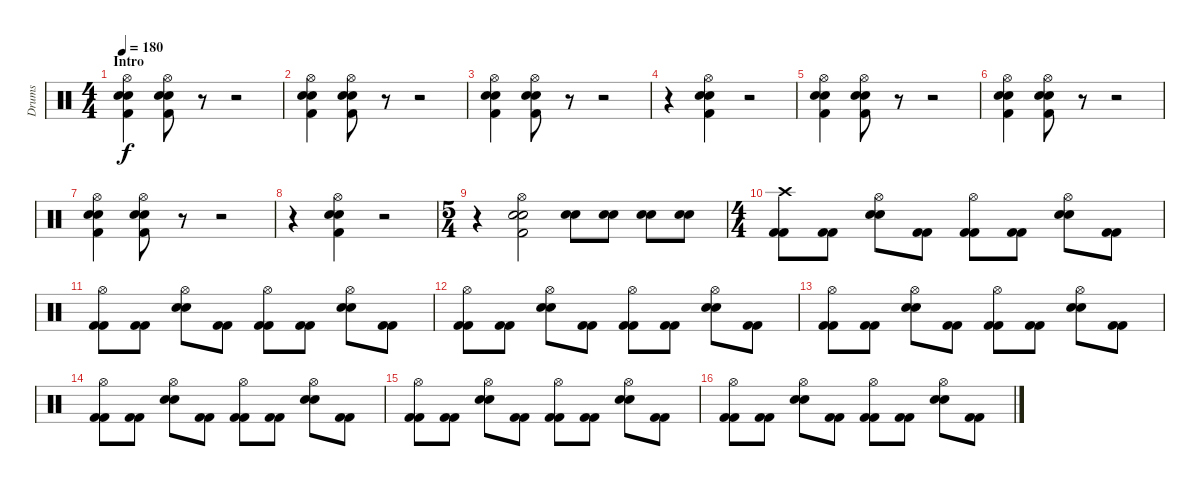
\track ("Drums" "Drums") {instrument percussion}
\staff {score}
\articulation defaults
\ts (4 4)
\section ("" "Intro")
\tempo 180
\clef neutral
\ks c
("Hi-Hat (open)" "Snare (hit) 2" "Snare (hit) 2" "Kick (hit) 2").4{dy f} ("Hi-Hat (open)" "Snare (hit) 2" "Snare (hit) 2" "Kick (hit) 2").8 r.8 r.2 |
("Hi-Hat (open)" "Snare (hit) 2" "Snare (hit) 2" "Kick (hit) 2").4 ("Hi-Hat (open)" "Snare (hit) 2" "Snare (hit) 2" "Kick (hit) 2").8 r.8 r.2 |
("Hi-Hat (open)" "Snare (hit) 2" "Snare (hit) 2" "Kick (hit) 2").4 ("Hi-Hat (open)" "Snare (hit) 2" "Snare (hit) 2" "Kick (hit) 2").8 r.8 r.2 |
r.4 ("Hi-Hat (open)" "Snare (hit) 2" "Snare (hit) 2" "Kick (hit) 2").4 r.2 |
("Hi-Hat (open)" "Snare (hit) 2" "Snare (hit) 2" "Kick (hit) 2").4 ("Hi-Hat (open)" "Snare (hit) 2" "Snare (hit) 2" "Kick (hit) 2").8 r.8 r.2 |
("Hi-Hat (open)" "Snare (hit) 2" "Snare (hit) 2" "Kick (hit) 2").4 ("Hi-Hat (open)" "Snare (hit) 2" "Snare (hit) 2" "Kick (hit) 2").8 r.8 r.2 |
("Hi-Hat (open)" "Snare (hit) 2" "Snare (hit) 2" "Kick (hit) 2").4 ("Hi-Hat (open)" "Snare (hit) 2" "Snare (hit) 2" "Kick (hit) 2").8 r.8 r.2 |
r.4 ("Hi-Hat (open)" "Snare (hit) 2" "Snare (hit) 2" "Kick (hit) 2").4 r.2 |
\ts (5 4)
r.4 ("Hi-Hat (open)" "Snare (hit) 2" "Snare (hit) 2" "Kick (hit) 2").2 ("Snare (hit) 2" "Snare (hit) 2").8 ("Snare (hit) 2" "Snare (hit) 2").8 ("Snare (hit) 2" "Snare (hit) 2").8 ("Snare (hit) 2" "Snare (hit) 2").8 |
\ts (4 4)
("Crash high (hit)" "Kick (hit) 2" "Kick (hit) 2").8 ("Kick (hit) 2" "Kick (hit) 2").8 ("Hi-Hat (open)" "Snare (hit) 2" "Snare (hit) 2").8 ("Kick (hit) 2" "Kick (hit) 2").8 ("Hi-Hat (open)" "Kick (hit) 2" "Kick (hit) 2").8 ("Kick (hit) 2" "Kick (hit) 2").8 ("Hi-Hat (open)" "Snare (hit) 2" "Snare (hit) 2").8 ("Kick (hit) 2" "Kick (hit) 2").8 |
("Hi-Hat (open)" "Kick (hit) 2" "Kick (hit) 2").8 ("Kick (hit) 2" "Kick (hit) 2").8 ("Hi-Hat (open)" "Snare (hit) 2" "Snare (hit) 2").8 ("Kick (hit) 2" "Kick (hit) 2").8 ("Hi-Hat (open)" "Kick (hit) 2" "Kick (hit) 2").8 ("Kick (hit) 2" "Kick (hit) 2").8 ("Hi-Hat (open)" "Snare (hit) 2" "Snare (hit) 2").8 ("Kick (hit) 2" "Kick (hit) 2").8 |
("Hi-Hat (open)" "Kick (hit) 2" "Kick (hit) 2").8 ("Kick (hit) 2" "Kick (hit) 2").8 ("Hi-Hat (open)" "Snare (hit) 2" "Snare (hit) 2").8 ("Kick (hit) 2" "Kick (hit) 2").8 ("Hi-Hat (open)" "Kick (hit) 2" "Kick (hit) 2").8 ("Kick (hit) 2" "Kick (hit) 2").8 ("Hi-Hat (open)" "Snare (hit) 2" "Snare (hit) 2").8 ("Kick (hit) 2" "Kick (hit) 2").8 |
("Hi-Hat (open)" "Kick (hit) 2" "Kick (hit) 2").8 ("Kick (hit) 2" "Kick (hit) 2").8 ("Hi-Hat (open)" "Snare (hit) 2" "Snare (hit) 2").8 ("Kick (hit) 2" "Kick (hit) 2").8 ("Hi-Hat (open)" "Kick (hit) 2" "Kick (hit) 2").8 ("Kick (hit) 2" "Kick (hit) 2").8 ("Hi-Hat (open)" "Snare (hit) 2" "Snare (hit) 2").8 ("Kick (hit) 2" "Kick (hit) 2").8 |
("Hi-Hat (open)" "Kick (hit) 2" "Kick (hit) 2").8 ("Kick (hit) 2" "Kick (hit) 2").8 ("Hi-Hat (open)" "Snare (hit) 2" "Snare (hit) 2").8 ("Kick (hit) 2" "Kick (hit) 2").8 ("Hi-Hat (open)" "Kick (hit) 2" "Kick (hit) 2").8 ("Kick (hit) 2" "Kick (hit) 2").8 ("Hi-Hat (open)" "Snare (hit) 2" "Snare (hit) 2").8 ("Kick (hit) 2" "Kick (hit) 2").8 |
("Hi-Hat (open)" "Kick (hit) 2" "Kick (hit) 2").8 ("Kick (hit) 2" "Kick (hit) 2").8 ("Hi-Hat (open)" "Snare (hit) 2" "Snare (hit) 2").8 ("Kick (hit) 2" "Kick (hit) 2").8 ("Hi-Hat (open)" "Kick (hit) 2" "Kick (hit) 2").8 ("Kick (hit) 2" "Kick (hit) 2").8 ("Hi-Hat (open)" "Snare (hit) 2" "Snare (hit) 2").8 ("Kick (hit) 2" "Kick (hit) 2").8 |
("Hi-Hat (open)" "Kick (hit) 2" "Kick (hit) 2").8 ("Kick (hit) 2" "Kick (hit) 2").8 ("Hi-Hat (open)" "Snare (hit) 2" "Snare (hit) 2").8 ("Kick (hit) 2" "Kick (hit) 2").8 ("Hi-Hat (open)" "Kick (hit) 2" "Kick (hit) 2").8 ("Kick (hit) 2" "Kick (hit) 2").8 ("Hi-Hat (open)" "Snare (hit) 2" "Snare (hit) 2").8 ("Kick (hit) 2" "Kick (hit) 2").8
